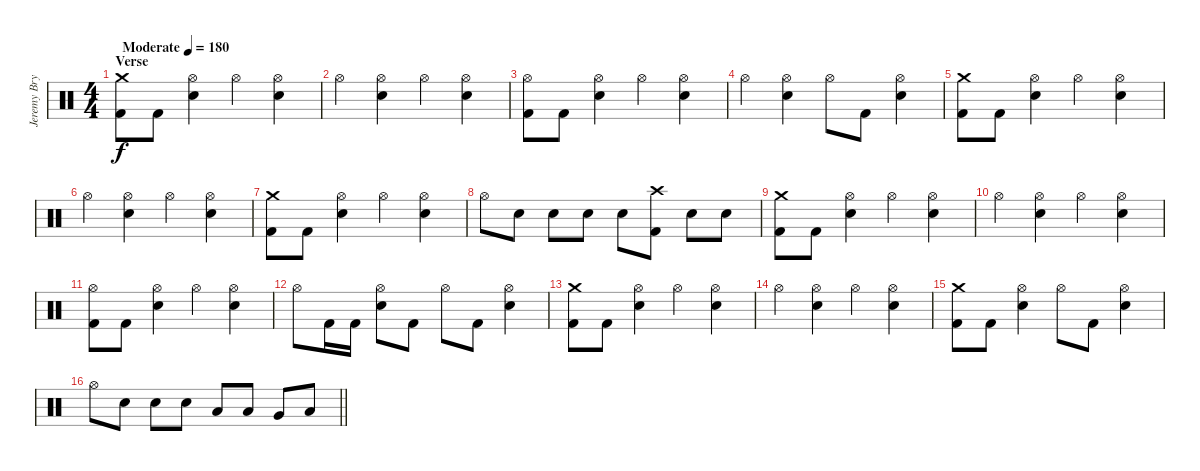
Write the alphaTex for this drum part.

\track ("Jeremy Bryan - Drums" "Jeremy Bry") {instrument percussion}
\staff {score}
\articulation defaults
\ts (4 4)
\section ("" "Verse")
\tempo (180 "Moderate")
\clef neutral
\ks c
("Crash medium (hit)" "Kick (hit) 2").8{dy f} "Kick (hit) 2".8 ("Hi-Hat (open)" "Electric Snare (hit)").4 "Hi-Hat (open)".4 ("Hi-Hat (open)" "Electric Snare (hit)").4 |
"Hi-Hat (open)".4 ("Hi-Hat (open)" "Electric Snare (hit)").4 "Hi-Hat (open)".4 ("Hi-Hat (open)" "Electric Snare (hit)").4 |
("Hi-Hat (open)" "Kick (hit) 2").8 "Kick (hit) 2".8 ("Hi-Hat (open)" "Electric Snare (hit)").4 "Hi-Hat (open)".4 ("Hi-Hat (open)" "Electric Snare (hit)").4 |
"Hi-Hat (open)".4 ("Hi-Hat (open)" "Electric Snare (hit)").4 "Hi-Hat (open)".8 "Kick (hit) 2".8 ("Hi-Hat (open)" "Electric Snare (hit)").4 |
("Crash medium (hit)" "Kick (hit) 2").8 "Kick (hit) 2".8 ("Hi-Hat (open)" "Electric Snare (hit)").4 "Hi-Hat (open)".4 ("Hi-Hat (open)" "Electric Snare (hit)").4 |
"Hi-Hat (open)".4 ("Hi-Hat (open)" "Electric Snare (hit)").4 "Hi-Hat (open)".4 ("Hi-Hat (open)" "Electric Snare (hit)").4 |
("Crash medium (hit)" "Kick (hit) 2").8 "Kick (hit) 2".8 ("Hi-Hat (open)" "Electric Snare (hit)").4 "Hi-Hat (open)".4 ("Hi-Hat (open)" "Electric Snare (hit)").4 |
"Hi-Hat (open)".8 "Electric Snare (hit)".8 "Electric Snare (hit)".8 "Electric Snare (hit)".8 "Electric Snare (hit)".8 ("Crash high (hit)" "Kick (hit) 2").8 "Electric Snare (hit)".8 "Electric Snare (hit)".8 |
("Crash medium (hit)" "Kick (hit) 2").8 "Kick (hit) 2".8 ("Hi-Hat (open)" "Electric Snare (hit)").4 "Hi-Hat (open)".4 ("Hi-Hat (open)" "Electric Snare (hit)").4 |
"Hi-Hat (open)".4 ("Hi-Hat (open)" "Electric Snare (hit)").4 "Hi-Hat (open)".4 ("Hi-Hat (open)" "Electric Snare (hit)").4 |
("Hi-Hat (open)" "Kick (hit) 2").8 "Kick (hit) 2".8 ("Hi-Hat (open)" "Electric Snare (hit)").4 "Hi-Hat (open)".4 ("Hi-Hat (open)" "Electric Snare (hit)").4 |
"Hi-Hat (open)".8 "Kick (hit) 2".16 "Kick (hit) 2".16 ("Hi-Hat (open)" "Electric Snare (hit)").8 "Kick (hit) 2".8 "Hi-Hat (open)".8 "Kick (hit) 2".8 ("Hi-Hat (open)" "Electric Snare (hit)").4 |
("Crash medium (hit)" "Kick (hit) 2").8 "Kick (hit) 2".8 ("Hi-Hat (open)" "Electric Snare (hit)").4 "Hi-Hat (open)".4 ("Hi-Hat (open)" "Electric Snare (hit)").4 |
"Hi-Hat (open)".4 ("Hi-Hat (open)" "Electric Snare (hit)").4 "Hi-Hat (open)".4 ("Hi-Hat (open)" "Electric Snare (hit)").4 |
("Crash medium (hit)" "Kick (hit) 2").8 "Kick (hit) 2".8 ("Hi-Hat (open)" "Electric Snare (hit)").4 "Hi-Hat (open)".8 "Kick (hit) 2".8 ("Hi-Hat (open)" "Electric Snare (hit)").4 |
\barLineRight lightlight "Hi-Hat (open)".8 "Electric Snare (hit)".8 "Electric Snare (hit)".8 "Electric Snare (hit)".8 "Low Tom (hit)".8 "Low Tom (hit)".8 "Very Low Tom (hit)".8 "Low Floor Tom (hit)".8
